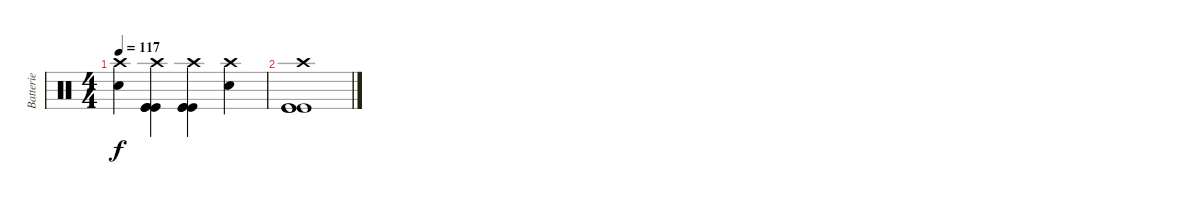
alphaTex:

\track ("Batterie" "Batterie") {instrument percussion}
\staff {score}
\articulation defaults
\ts (4 4)
\tempo 117
\clef neutral
\ks c
("Electric Snare (hit)" "Crash high (hit)").4{dy f} ("Kick (hit)" "Kick (hit)" "Kick (hit)" "Crash high (hit)").4 ("Kick (hit)" "Kick (hit)" "Kick (hit)" "Crash high (hit)").4 ("Electric Snare (hit)" "Crash high (hit)").4 |
("Kick (hit)" "Kick (hit)" "Kick (hit)" "Crash high (hit)").1
